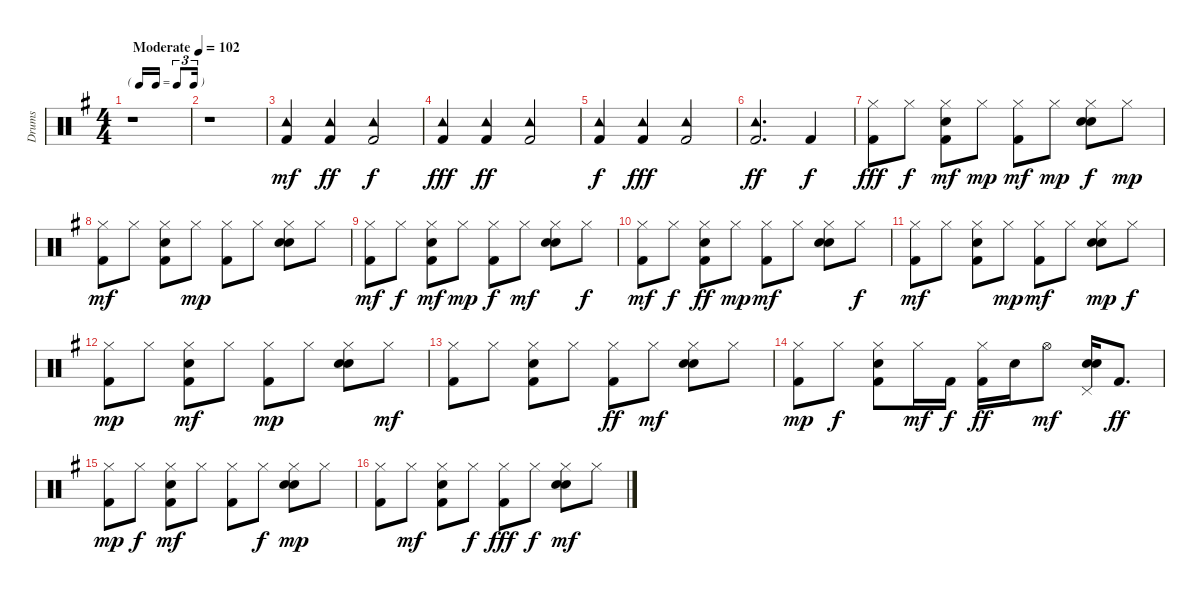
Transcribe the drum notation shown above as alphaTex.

\track ("Drums" "Drums") {instrument percussion}
\staff {score}
\articulation defaults
\ts (4 4)
\tf triplet16th
\tempo (102 "Moderate")
\clef neutral
\ks g
r.1{dy mf} |
r.1 |
("Kick (hit) 2" "Tambourine (hit)").4 ("Kick (hit) 2" "Tambourine (hit)").4{dy ff} ("Kick (hit) 2" "Tambourine (hit)").2{dy f} |
("Kick (hit) 2" "Tambourine (hit)").4{dy fff} ("Kick (hit) 2" "Tambourine (hit)").4{dy ff} ("Kick (hit) 2" "Tambourine (hit)").2 |
("Kick (hit) 2" "Tambourine (hit)").4{dy f} ("Kick (hit) 2" "Tambourine (hit)").4{dy fff} ("Kick (hit) 2" "Tambourine (hit)").2 |
("Kick (hit) 2" "Tambourine (hit)").2{d dy ff} "Kick (hit) 2".4{dy f} |
("Kick (hit) 2" "Hi-Hat (closed)").8{dy fff} "Hi-Hat (closed)".8{dy f} ("Kick (hit) 2" "Hand Clap (hit)" "Hi-Hat (closed)").8{dy mf} "Hi-Hat (closed)".8{dy mp} ("Kick (hit) 2" "Hi-Hat (closed)").8{dy mf} "Hi-Hat (closed)".8{dy mp} ("Hand Clap (hit)" "Snare (hit) 2" "Hi-Hat (closed)").8{dy f} "Hi-Hat (closed)".8{dy mp} |
("Kick (hit) 2" "Hi-Hat (closed)").8{dy mf} "Hi-Hat (closed)".8 ("Kick (hit) 2" "Hand Clap (hit)" "Hi-Hat (closed)").8 "Hi-Hat (closed)".8{dy mp} ("Kick (hit) 2" "Hi-Hat (closed)").8 "Hi-Hat (closed)".8 ("Hand Clap (hit)" "Snare (hit) 2" "Hi-Hat (closed)").8 "Hi-Hat (closed)".8 |
("Kick (hit) 2" "Hi-Hat (closed)").8{dy mf} "Hi-Hat (closed)".8{dy f} ("Kick (hit) 2" "Hand Clap (hit)" "Hi-Hat (closed)").8{dy mf} "Hi-Hat (closed)".8{dy mp} ("Kick (hit) 2" "Hi-Hat (closed)").8{dy f} "Hi-Hat (closed)".8{dy mf} ("Hand Clap (hit)" "Snare (hit) 2" "Hi-Hat (closed)").8 "Hi-Hat (closed)".8{dy f} |
("Kick (hit) 2" "Hi-Hat (closed)").8{dy mf} "Hi-Hat (closed)".8{dy f} ("Kick (hit) 2" "Hand Clap (hit)" "Hi-Hat (closed)").8{dy ff} "Hi-Hat (closed)".8{dy mp} ("Kick (hit) 2" "Hi-Hat (closed)").8{dy mf} "Hi-Hat (closed)".8 ("Hand Clap (hit)" "Snare (hit) 2" "Hi-Hat (closed)").8 "Hi-Hat (closed)".8{dy f} |
("Kick (hit) 2" "Hi-Hat (closed)").8{dy mf} "Hi-Hat (closed)".8 ("Kick (hit) 2" "Hand Clap (hit)" "Hi-Hat (closed)").8 "Hi-Hat (closed)".8{dy mp} ("Kick (hit) 2" "Hi-Hat (closed)").8{dy mf} "Hi-Hat (closed)".8 ("Hand Clap (hit)" "Snare (hit) 2" "Hi-Hat (closed)").8{dy mp} "Hi-Hat (closed)".8{dy f} |
("Kick (hit) 2" "Hi-Hat (closed)").8{dy mp} "Hi-Hat (closed)".8 ("Kick (hit) 2" "Hand Clap (hit)" "Hi-Hat (closed)").8{dy mf} "Hi-Hat (closed)".8 ("Kick (hit) 2" "Hi-Hat (closed)").8{dy mp} "Hi-Hat (closed)".8 ("Hand Clap (hit)" "Snare (hit) 2" "Hi-Hat (closed)").8 "Hi-Hat (closed)".8{dy mf} |
("Kick (hit) 2" "Hi-Hat (closed)").8 "Hi-Hat (closed)".8 ("Kick (hit) 2" "Hand Clap (hit)" "Hi-Hat (closed)").8 "Hi-Hat (closed)".8 ("Kick (hit) 2" "Hi-Hat (closed)").8{dy ff} "Hi-Hat (closed)".8{dy mf} ("Hand Clap (hit)" "Snare (hit) 2" "Hi-Hat (closed)").8 "Hi-Hat (closed)".8 |
("Kick (hit) 2" "Hi-Hat (closed)").8{dy mp} "Hi-Hat (closed)".8{dy f} ("Kick (hit) 2" "Hand Clap (hit)" "Hi-Hat (closed)").8 "Hi-Hat (closed)".16{dy mf} "Kick (hit) 2".16{dy f} ("Kick (hit) 2" "Hi-Hat (closed)").16{dy ff} "Snare (hit) 2".16 "Hi-Hat (open)".8{dy mf} ("Hand Clap (hit)" "Snare (hit) 2" "Pedal Hi-Hat (hit)").16 "Kick (hit) 2".8{d dy ff} |
("Kick (hit) 2" "Hi-Hat (closed)").8{dy mp} "Hi-Hat (closed)".8{dy f} ("Kick (hit) 2" "Hand Clap (hit)" "Hi-Hat (closed)").8{dy mf} "Hi-Hat (closed)".8 ("Kick (hit) 2" "Hi-Hat (closed)").8 "Hi-Hat (closed)".8{dy f} ("Hand Clap (hit)" "Snare (hit) 2" "Hi-Hat (closed)").8{dy mp} "Hi-Hat (closed)".8 |
("Kick (hit) 2" "Hi-Hat (closed)").8 "Hi-Hat (closed)".8{dy mf} ("Kick (hit) 2" "Hand Clap (hit)" "Hi-Hat (closed)").8 "Hi-Hat (closed)".8{dy f} ("Kick (hit) 2" "Hi-Hat (closed)").8{dy fff} "Hi-Hat (closed)".8{dy f} ("Hand Clap (hit)" "Snare (hit) 2" "Hi-Hat (closed)").8{dy mf} "Hi-Hat (closed)".8
